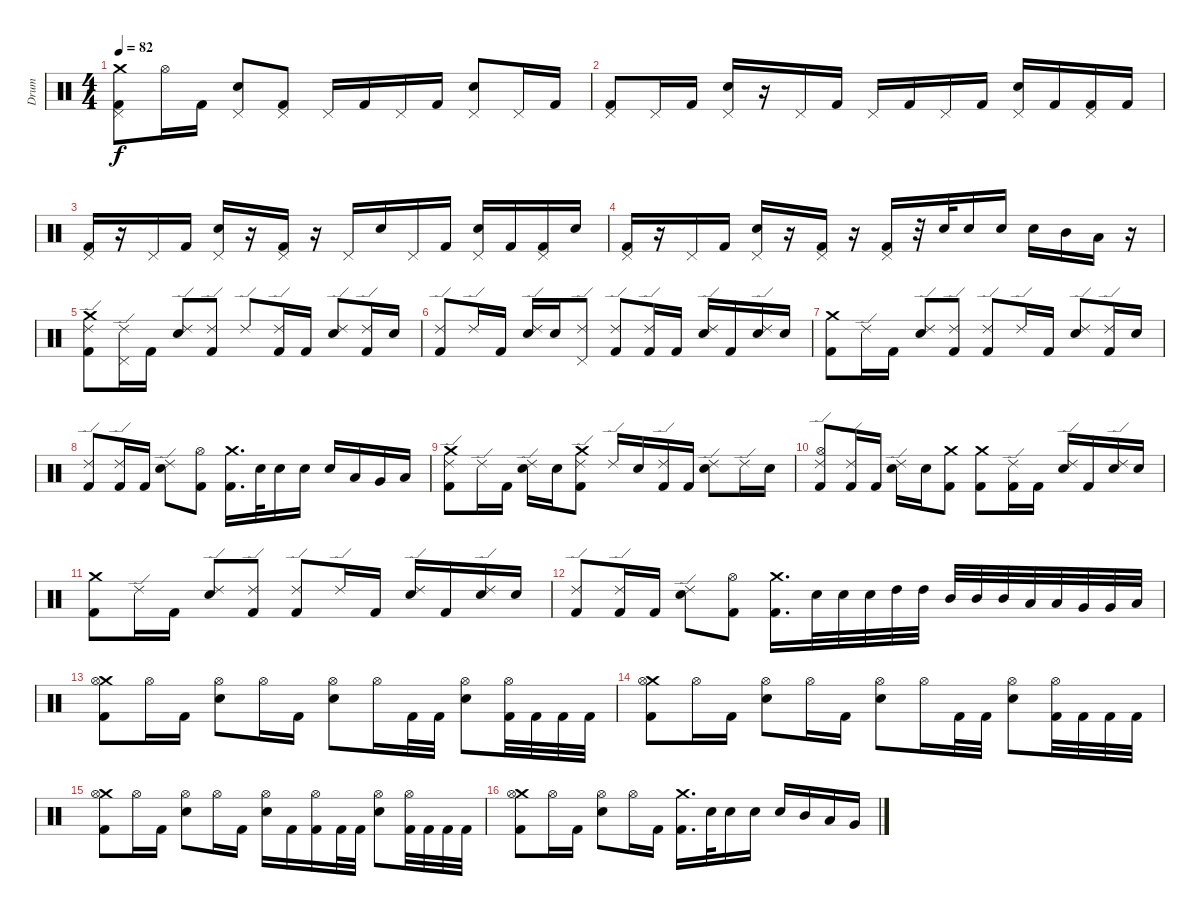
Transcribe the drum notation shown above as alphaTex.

\track ("Drum" "Drum") {instrument percussion}
\staff {score}
\articulation defaults
\ts (4 4)
\tempo 82
\clef neutral
\ks c
("Crash medium (hit)" "Pedal Hi-Hat (hit)" "Kick (hit) 2").8{dy f} "Hi-Hat (open)".16 "Kick (hit) 2".16 ("Pedal Hi-Hat (hit)" "Electric Snare (hit)").8 ("Pedal Hi-Hat (hit)" "Kick (hit) 2").8 "Pedal Hi-Hat (hit)".16 "Kick (hit) 2".16 "Pedal Hi-Hat (hit)".16 "Kick (hit) 2".16 ("Pedal Hi-Hat (hit)" "Electric Snare (hit)").8 "Pedal Hi-Hat (hit)".16 "Kick (hit) 2".16 |
("Kick (hit) 2" "Pedal Hi-Hat (hit)").8 "Pedal Hi-Hat (hit)".16 "Kick (hit) 2".16 ("Electric Snare (hit)" "Pedal Hi-Hat (hit)").16 r.16 "Pedal Hi-Hat (hit)".16 "Kick (hit) 2".16 "Pedal Hi-Hat (hit)".16 "Kick (hit) 2".16 "Pedal Hi-Hat (hit)".16 "Kick (hit) 2".16 ("Electric Snare (hit)" "Pedal Hi-Hat (hit)").16 "Kick (hit) 2".16 ("Kick (hit) 2" "Pedal Hi-Hat (hit)").16 "Kick (hit) 2".16 |
("Pedal Hi-Hat (hit)" "Kick (hit) 2").16 r.16 "Pedal Hi-Hat (hit)".16 "Kick (hit) 2".16 ("Pedal Hi-Hat (hit)" "Electric Snare (hit)").16 r.16 ("Pedal Hi-Hat (hit)" "Kick (hit) 2").16 r.16 "Pedal Hi-Hat (hit)".16 "Electric Snare (hit)".16 "Pedal Hi-Hat (hit)".16 "Kick (hit) 2".16 ("Pedal Hi-Hat (hit)" "Electric Snare (hit)").16 "Kick (hit) 2".16 ("Pedal Hi-Hat (hit)" "Kick (hit) 2").16 "Electric Snare (hit)".16 |
("Pedal Hi-Hat (hit)" "Kick (hit) 2").16 r.16 "Pedal Hi-Hat (hit)".16 "Kick (hit) 2".16 ("Pedal Hi-Hat (hit)" "Electric Snare (hit)").16 r.16 ("Pedal Hi-Hat (hit)" "Kick (hit) 2").16 r.16 ("Kick (hit) 2" "Pedal Hi-Hat (hit)").16 r.32 "Electric Snare (hit)".32 "Electric Snare (hit)".16 "Electric Snare (hit)".16 "Electric Snare (hit)".16 "Mid Tom (hit)".16 "Low Tom (hit)".16 r.16 |
("Kick (hit) 2" "Crash medium (hit)" "Ride (edge) 2").8 ("Pedal Hi-Hat (hit)" "Ride (edge) 2").16 "Kick (hit) 2".16 ("Electric Snare (hit)" "Ride (edge) 2").8 ("Kick (hit) 2" "Ride (edge) 2").8 "Ride (edge) 2".8 ("Kick (hit) 2" "Ride (edge) 2").16 "Kick (hit) 2".16 ("Electric Snare (hit)" "Ride (edge) 2").8 ("Kick (hit) 2" "Ride (edge) 2").16 "Electric Snare (hit)".16 |
("Kick (hit) 2" "Ride (edge) 2").8 "Ride (edge) 2".16 "Kick (hit) 2".16 ("Electric Snare (hit)" "Ride (edge) 2").16 "Electric Snare (hit)".16 ("Ride (edge) 2" "Pedal Hi-Hat (hit)").8 ("Kick (hit) 2" "Ride (edge) 2").8 ("Kick (hit) 2" "Ride (edge) 2").16 "Kick (hit) 2".16 ("Electric Snare (hit)" "Ride (edge) 2").16 "Kick (hit) 2".16 ("Electric Snare (hit)" "Ride (edge) 2").16 "Electric Snare (hit)".16 |
("Kick (hit) 2" "Crash medium (hit)").8 "Ride (edge) 2".16 "Kick (hit) 2".16 ("Electric Snare (hit)" "Ride (edge) 2").8 ("Kick (hit) 2" "Ride (edge) 2").8 ("Kick (hit) 2" "Ride (edge) 2").8 "Ride (edge) 2".16 "Kick (hit) 2".16 ("Electric Snare (hit)" "Ride (edge) 2").8 ("Kick (hit) 2" "Ride (edge) 2").16 "Electric Snare (hit)".16 |
("Kick (hit) 2" "Ride (edge) 2").8 ("Kick (hit) 2" "Ride (edge) 2").16 "Kick (hit) 2".16 ("Electric Snare (hit)" "Ride (edge) 2").8 ("Hi-Hat (open)" "Kick (hit) 2").8 ("Crash medium (hit)" "Kick (hit) 2").16{d} "Electric Snare (hit)".32 "Electric Snare (hit)".16 "Electric Snare (hit)".16 "Electric Snare (hit)".16 "Low Tom (hit)".16 "Very Low Tom (hit)".16 "Low Floor Tom (hit)".16 |
("Kick (hit) 2" "Ride (edge) 2" "Crash medium (hit)").8 "Ride (edge) 2".16 "Kick (hit) 2".16 ("Electric Snare (hit)" "Ride (edge) 2").16 "Electric Snare (hit)".16 ("Kick (hit) 2" "Crash medium (hit)" "Ride (edge) 2").8 "Ride (edge) 2".16 "Electric Snare (hit)".16 ("Kick (hit) 2" "Ride (edge) 2").16 "Kick (hit) 2".16 ("Electric Snare (hit)" "Ride (edge) 2").8 "Ride (edge) 2".16 "Electric Snare (hit)".16 |
("Kick (hit) 2" "Hi-Hat (open)" "Ride (edge) 2").8 ("Kick (hit) 2" "Ride (edge) 2").16 "Kick (hit) 2".16 ("Electric Snare (hit)" "Ride (edge) 2").16 "Electric Snare (hit)".16 ("Kick (hit) 2" "Crash medium (hit)").8 ("Kick (hit) 2" "Crash medium (hit)").8 ("Kick (hit) 2" "Ride (edge) 2").16 "Kick (hit) 2".16 ("Electric Snare (hit)" "Ride (edge) 2").16 "Kick (hit) 2".16 ("Electric Snare (hit)" "Ride (edge) 2").16 "Electric Snare (hit)".16 |
("Kick (hit) 2" "Crash medium (hit)").8 "Ride (edge) 2".16 "Kick (hit) 2".16 ("Electric Snare (hit)" "Ride (edge) 2").8 ("Kick (hit) 2" "Ride (edge) 2").8 ("Kick (hit) 2" "Ride (edge) 2").8 "Ride (edge) 2".16 "Kick (hit) 2".16 ("Electric Snare (hit)" "Ride (edge) 2").16 "Kick (hit) 2".16 ("Electric Snare (hit)" "Ride (edge) 2").16 "Electric Snare (hit)".16 |
("Kick (hit) 2" "Ride (edge) 2").8 ("Kick (hit) 2" "Ride (edge) 2").16 "Kick (hit) 2".16 ("Electric Snare (hit)" "Ride (edge) 2").8 ("Hi-Hat (open)" "Kick (hit) 2").8 ("Crash medium (hit)" "Kick (hit) 2").16{d} "Electric Snare (hit)".32 "Electric Snare (hit)".32 "Electric Snare (hit)".32 "High Tom (hit)".32 "High Tom (hit)".32 "Mid Tom (hit)".32 "Mid Tom (hit)".32 "Mid Tom (hit)".32 "Low Tom (hit)".32 "Low Tom (hit)".32 "Very Low Tom (hit)".32 "Very Low Tom (hit)".32 "Low Floor Tom (hit)".32 |
("Crash medium (hit)" "Kick (hit) 2" "Hi-Hat (open)").8 "Hi-Hat (open)".16 "Kick (hit) 2".16 ("Electric Snare (hit)" "Hi-Hat (open)").8 "Hi-Hat (open)".16 "Kick (hit) 2".16 ("Electric Snare (hit)" "Hi-Hat (open)").8 "Hi-Hat (open)".16 "Kick (hit) 2".32 "Kick (hit) 2".32 ("Electric Snare (hit)" "Hi-Hat (open)").8 ("Kick (hit) 2" "Hi-Hat (open)").32 "Kick (hit) 2".32 "Kick (hit) 2".32 "Kick (hit) 2".32 |
("Crash medium (hit)" "Kick (hit) 2" "Hi-Hat (open)").8 "Hi-Hat (open)".16 "Kick (hit) 2".16 ("Electric Snare (hit)" "Hi-Hat (open)").8 "Hi-Hat (open)".16 "Kick (hit) 2".16 ("Electric Snare (hit)" "Hi-Hat (open)").8 "Hi-Hat (open)".16 "Kick (hit) 2".32 "Kick (hit) 2".32 ("Electric Snare (hit)" "Hi-Hat (open)").8 ("Kick (hit) 2" "Hi-Hat (open)").32 "Kick (hit) 2".32 "Kick (hit) 2".32 "Kick (hit) 2".32 |
("Crash medium (hit)" "Kick (hit) 2" "Hi-Hat (open)").8 "Hi-Hat (open)".16 "Kick (hit) 2".16 ("Electric Snare (hit)" "Hi-Hat (open)").8 "Hi-Hat (open)".16 "Kick (hit) 2".16 ("Electric Snare (hit)" "Hi-Hat (open)").16 "Kick (hit) 2".16 ("Kick (hit) 2" "Hi-Hat (open)").16 "Kick (hit) 2".32 "Kick (hit) 2".32 ("Electric Snare (hit)" "Hi-Hat (open)").8 ("Kick (hit) 2" "Hi-Hat (open)").32 "Kick (hit) 2".32 "Kick (hit) 2".32 "Kick (hit) 2".32 |
("Crash medium (hit)" "Kick (hit) 2" "Hi-Hat (open)").8 "Hi-Hat (open)".16 "Kick (hit) 2".16 ("Electric Snare (hit)" "Hi-Hat (open)").8 "Hi-Hat (open)".16 "Kick (hit) 2".16 ("Crash medium (hit)" "Kick (hit) 2").16{d} "Electric Snare (hit)".32 "Electric Snare (hit)".16 "Electric Snare (hit)".16 "Electric Snare (hit)".16 "Mid Tom (hit)".16 "Low Tom (hit)".16 "Very Low Tom (hit)".16
